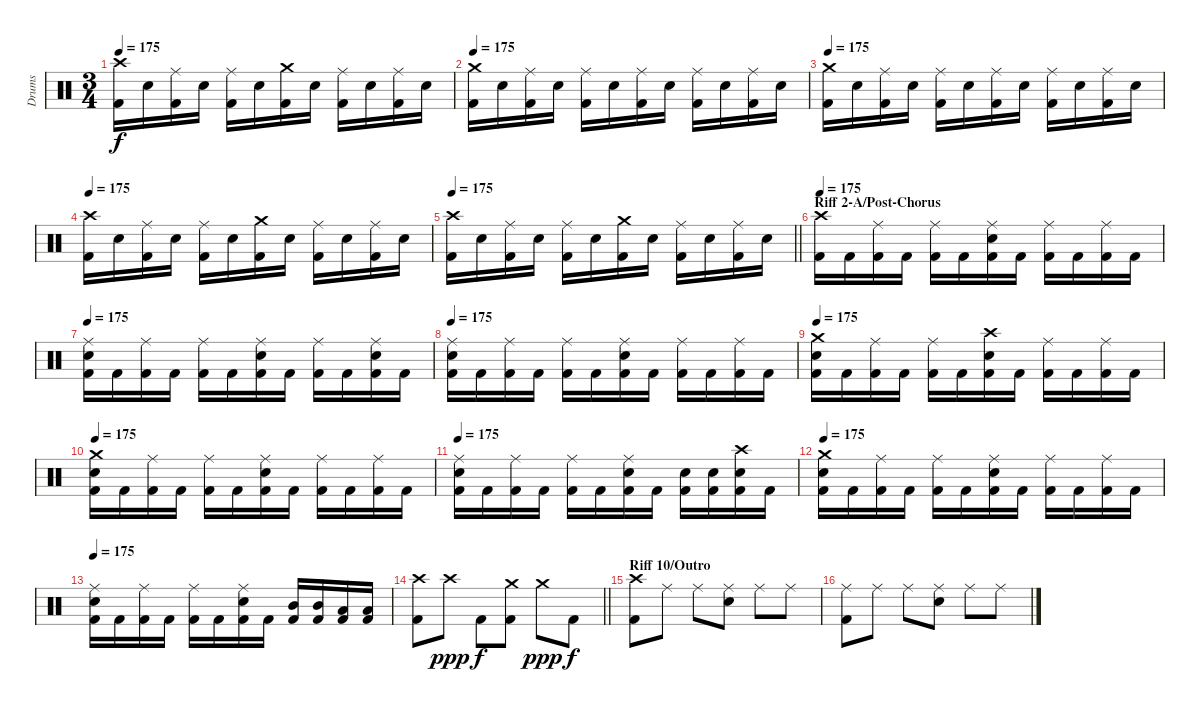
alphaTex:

\track ("Drums" "Drums") {instrument percussion}
\staff {score}
\articulation defaults
\ts (3 4)
\tempo 175
\clef neutral
\ks c
("Crash high (hit)" "Kick (hit) 2").16{dy f} "Electric Snare (hit)".16 ("Ride (middle)" "Kick (hit) 2").16 "Electric Snare (hit)".16 ("Ride (middle)" "Kick (hit) 2").16 "Electric Snare (hit)".16 ("Crash medium (hit)" "Kick (hit) 2").16 "Electric Snare (hit)".16 ("Ride (middle)" "Kick (hit) 2").16 "Electric Snare (hit)".16 ("Ride (middle)" "Kick (hit) 2").16 "Electric Snare (hit)".16 |
\tempo 175
("Crash medium (hit)" "Kick (hit) 2").16 "Electric Snare (hit)".16 ("Ride (middle)" "Kick (hit) 2").16 "Electric Snare (hit)".16 ("Ride (middle)" "Kick (hit) 2").16 "Electric Snare (hit)".16 ("Ride (middle)" "Kick (hit) 2").16 "Electric Snare (hit)".16 ("Ride (middle)" "Kick (hit) 2").16 "Electric Snare (hit)".16 ("Ride (middle)" "Kick (hit) 2").16 "Electric Snare (hit)".16 |
\tempo 175
("Crash medium (hit)" "Kick (hit) 2").16 "Electric Snare (hit)".16 ("Ride (middle)" "Kick (hit) 2").16 "Electric Snare (hit)".16 ("Ride (middle)" "Kick (hit) 2").16 "Electric Snare (hit)".16 ("Ride (middle)" "Kick (hit) 2").16 "Electric Snare (hit)".16 ("Ride (middle)" "Kick (hit) 2").16 "Electric Snare (hit)".16 ("Ride (middle)" "Kick (hit) 2").16 "Electric Snare (hit)".16 |
\tempo 175
("Crash high (hit)" "Kick (hit) 2").16 "Electric Snare (hit)".16 ("Ride (middle)" "Kick (hit) 2").16 "Electric Snare (hit)".16 ("Ride (middle)" "Kick (hit) 2").16 "Electric Snare (hit)".16 ("Crash medium (hit)" "Kick (hit) 2").16 "Electric Snare (hit)".16 ("Ride (middle)" "Kick (hit) 2").16 "Electric Snare (hit)".16 ("Ride (middle)" "Kick (hit) 2").16 "Electric Snare (hit)".16 |
\tempo 175
\barLineRight lightlight
("Crash high (hit)" "Kick (hit) 2").16 "Electric Snare (hit)".16 ("Ride (middle)" "Kick (hit) 2").16 "Electric Snare (hit)".16 ("Ride (middle)" "Kick (hit) 2").16 "Electric Snare (hit)".16 ("Crash medium (hit)" "Kick (hit) 2").16 "Electric Snare (hit)".16 ("Ride (middle)" "Kick (hit) 2").16 "Electric Snare (hit)".16 ("Ride (middle)" "Kick (hit) 2").16 "Electric Snare (hit)".16 |
\section ("" "Riff 2-A/Post-Chorus")
\tempo 175
("Crash high (hit)" "Kick (hit) 2").16 "Kick (hit) 2".16 ("Ride (middle)" "Kick (hit) 2").16 "Kick (hit) 2".16 ("Ride (middle)" "Kick (hit) 2").16 "Kick (hit) 2".16 ("Ride (middle)" "Electric Snare (hit)" "Kick (hit) 2").16 "Kick (hit) 2".16 ("Ride (middle)" "Kick (hit) 2").16 "Kick (hit) 2".16 ("Ride (middle)" "Kick (hit) 2").16 "Kick (hit) 2".16 |
\tempo 175
("Ride (middle)" "Electric Snare (hit)" "Kick (hit) 2").16 "Kick (hit) 2".16 ("Ride (middle)" "Kick (hit) 2").16 "Kick (hit) 2".16 ("Ride (middle)" "Kick (hit) 2").16 "Kick (hit) 2".16 ("Ride (middle)" "Electric Snare (hit)" "Kick (hit) 2").16 "Kick (hit) 2".16 ("Ride (middle)" "Kick (hit) 2").16 "Kick (hit) 2".16 ("Ride (middle)" "Electric Snare (hit)" "Kick (hit) 2").16 "Kick (hit) 2".16 |
\tempo 175
("Ride (middle)" "Electric Snare (hit)" "Kick (hit) 2").16 "Kick (hit) 2".16 ("Ride (middle)" "Kick (hit) 2").16 "Kick (hit) 2".16 ("Ride (middle)" "Kick (hit) 2").16 "Kick (hit) 2".16 ("Ride (middle)" "Electric Snare (hit)" "Kick (hit) 2").16 "Kick (hit) 2".16 ("Ride (middle)" "Kick (hit) 2").16 "Kick (hit) 2".16 ("Ride (middle)" "Kick (hit) 2").16 "Kick (hit) 2".16 |
\tempo 175
("Crash medium (hit)" "Electric Snare (hit)" "Kick (hit) 2").16 "Kick (hit) 2".16 ("Ride (middle)" "Kick (hit) 2").16 "Kick (hit) 2".16 ("Ride (middle)" "Kick (hit) 2").16 "Kick (hit) 2".16 ("Crash high (hit)" "Electric Snare (hit)" "Kick (hit) 2").16 "Kick (hit) 2".16 ("Ride (middle)" "Kick (hit) 2").16 "Kick (hit) 2".16 ("Ride (middle)" "Kick (hit) 2").16 "Kick (hit) 2".16 |
\tempo 175
("Crash medium (hit)" "Electric Snare (hit)" "Kick (hit) 2").16 "Kick (hit) 2".16 ("Ride (middle)" "Kick (hit) 2").16 "Kick (hit) 2".16 ("Ride (middle)" "Kick (hit) 2").16 "Kick (hit) 2".16 ("Ride (middle)" "Electric Snare (hit)" "Kick (hit) 2").16 "Kick (hit) 2".16 ("Ride (middle)" "Kick (hit) 2").16 "Kick (hit) 2".16 ("Ride (middle)" "Kick (hit) 2").16 "Kick (hit) 2".16 |
\tempo 175
("Ride (middle)" "Electric Snare (hit)" "Kick (hit) 2").16 "Kick (hit) 2".16 ("Ride (middle)" "Kick (hit) 2").16 "Kick (hit) 2".16 ("Ride (middle)" "Kick (hit) 2").16 "Kick (hit) 2".16 ("Ride (middle)" "Electric Snare (hit)" "Kick (hit) 2").16 "Kick (hit) 2".16 ("Electric Snare (hit)" "Kick (hit) 2").16 ("Electric Snare (hit)" "Kick (hit) 2").16 ("Crash high (hit)" "Electric Snare (hit)" "Kick (hit) 2").16 "Kick (hit) 2".16 |
\tempo 175
("Crash medium (hit)" "Electric Snare (hit)" "Kick (hit) 2").16 "Kick (hit) 2".16 ("Ride (middle)" "Kick (hit) 2").16 "Kick (hit) 2".16 ("Ride (middle)" "Kick (hit) 2").16 "Kick (hit) 2".16 ("Ride (middle)" "Electric Snare (hit)" "Kick (hit) 2").16 "Kick (hit) 2".16 ("Ride (middle)" "Kick (hit) 2").16 "Kick (hit) 2".16 ("Ride (middle)" "Kick (hit) 2").16 "Kick (hit) 2".16 |
\tempo 175
("Ride (middle)" "Electric Snare (hit)" "Kick (hit) 2").16 "Kick (hit) 2".16 ("Ride (middle)" "Kick (hit) 2").16 "Kick (hit) 2".16 ("Ride (middle)" "Kick (hit) 2").16 "Kick (hit) 2".16 ("Ride (middle)" "Electric Snare (hit)" "Kick (hit) 2").16 "Kick (hit) 2".16 ("Mid Tom (hit)" "Kick (hit) 2").16 ("Mid Tom (hit)" "Kick (hit) 2").16 ("Low Tom (hit)" "Kick (hit) 2").16 ("Low Tom (hit)" "Kick (hit) 2").16 |
\barLineRight lightlight
("Crash high (hit)" "Kick (hit) 2").8 "Crash high (hit)".8{dy ppp} "Kick (hit) 2".8{dy f} ("Crash medium (hit)" "Kick (hit) 2").8 "Crash medium (hit)".8{dy ppp} "Kick (hit) 2".8{dy f} |
\section ("" "Riff 10/Outro")
("Crash high (hit)" "Kick (hit) 2").8 "Ride (middle)".8 "Ride (middle)".8 ("Ride (middle)" "Electric Snare (hit)").8 "Ride (middle)".8 "Ride (middle)".8 |
("Ride (middle)" "Kick (hit) 2").8 "Ride (middle)".8 "Ride (middle)".8 ("Ride (middle)" "Electric Snare (hit)").8 "Ride (middle)".8 "Ride (middle)".8
